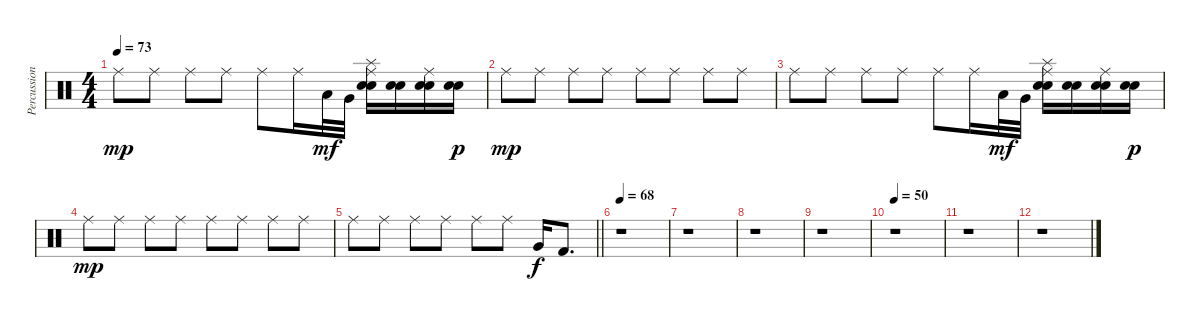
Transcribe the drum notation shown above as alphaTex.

\track ("Percussion" "Percussion") {instrument percussion}
\staff {score}
\articulation defaults
\ts (4 4)
\tempo 73
\clef neutral
\ks c "Ride (middle)".8{dy mp} "Ride (middle)".8 "Ride (middle)".8 "Ride (middle)".8 "Ride (middle)".8 "Ride (middle)".16 "Low Floor Tom (hit)".32{dy mf} "Very Low Tom (hit)".32
("Ride (middle)" "Splash (hit)" "Electric Snare (hit)" "Snare (hit) 2").16 ("Electric Snare (hit)" "Snare (hit) 2").16 ("Ride (middle)" "Electric Snare (hit)" "Snare (hit) 2").16 ("Electric Snare (hit)" "Snare (hit) 2").16{dy p} |
"Ride (middle)".8{dy mp} "Ride (middle)".8 "Ride (middle)".8 "Ride (middle)".8 "Ride (middle)".8 "Ride (middle)".8 "Ride (middle)".8 "Ride (middle)".8 |
"Ride (middle)".8 "Ride (middle)".8 "Ride (middle)".8 "Ride (middle)".8 "Ride (middle)".8 "Ride (middle)".16 "Low Floor Tom (hit)".32{dy mf} "Very Low Tom (hit)".32 ("Ride (middle)" "Splash (hit)" "Electric Snare (hit)" "Snare (hit) 2").16 ("Electric Snare (hit)" "Snare (hit) 2").16 ("Ride (middle)" "Electric Snare (hit)" "Snare (hit) 2").16 ("Electric Snare (hit)" "Snare (hit) 2").16{dy p} |
"Ride (middle)".8{dy mp} "Ride (middle)".8 "Ride (middle)".8 "Ride (middle)".8 "Ride (middle)".8 "Ride (middle)".8 "Ride (middle)".8 "Ride (middle)".8 |
\barLineRight lightlight "Ride (middle)".8 "Ride (middle)".8 "Ride (middle)".8 "Ride (middle)".8 "Ride (middle)".8 "Ride (middle)".8 "Very Low Tom (hit)".16{dy f} "Kick (hit) 2".8{d}
|
\section ("" "")
\tempo 68
r.1 |
r.1 |
r.1 |
r.1 |
\tempo 50
r.1 |
r.1 |
r.1
